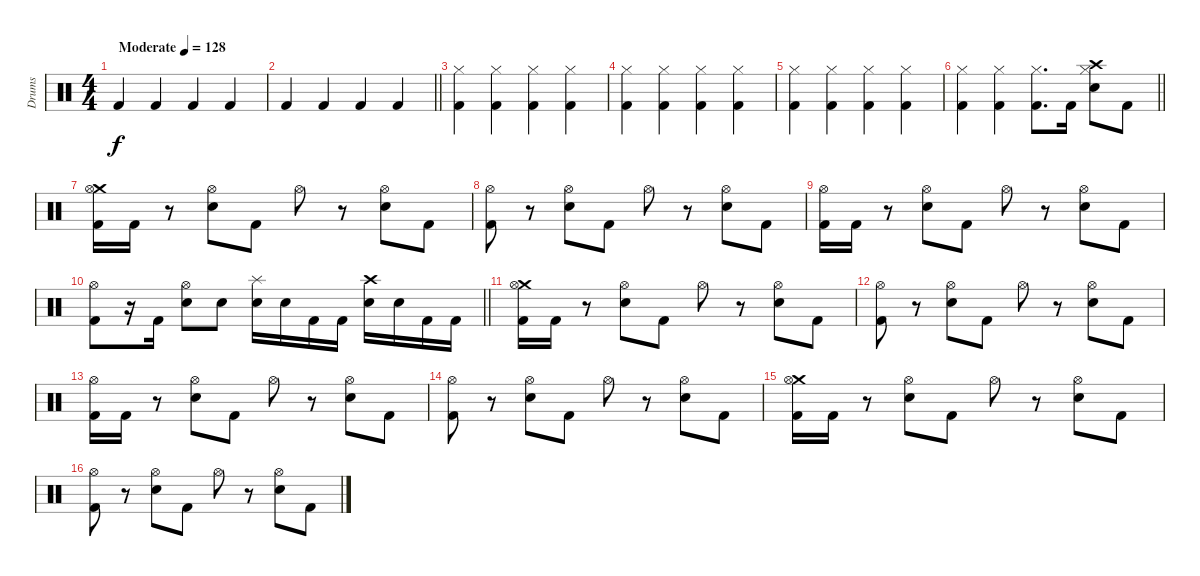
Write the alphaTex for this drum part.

\track ("Drums" "Drums") {instrument percussion}
\staff {score}
\articulation defaults
\ts (4 4)
\section ("" "")
\tempo (128 "Moderate")
\clef neutral
\ks c "Kick (hit) 2".4{dy f} "Kick (hit) 2".4 "Kick (hit) 2".4 "Kick (hit) 2".4
|
\barLineRight lightlight "Kick (hit) 2".4 "Kick (hit) 2".4 "Kick (hit) 2".4 "Kick (hit) 2".4
|
\section ("" "")
("Hi-Hat (closed)" "Kick (hit) 2").4 ("Hi-Hat (closed)" "Kick (hit) 2").4 ("Hi-Hat (closed)" "Kick (hit) 2").4 ("Hi-Hat (closed)" "Kick (hit) 2").4 |
("Hi-Hat (closed)" "Kick (hit) 2").4 ("Hi-Hat (closed)" "Kick (hit) 2").4 ("Hi-Hat (closed)" "Kick (hit) 2").4 ("Hi-Hat (closed)" "Kick (hit) 2").4 |
("Hi-Hat (closed)" "Kick (hit) 2").4 ("Hi-Hat (closed)" "Kick (hit) 2").4 ("Hi-Hat (closed)" "Kick (hit) 2").4 ("Hi-Hat (closed)" "Kick (hit) 2").4 |
\barLineRight lightlight
("Hi-Hat (closed)" "Kick (hit) 2").4 ("Hi-Hat (closed)" "Kick (hit) 2").4 ("Hi-Hat (closed)" "Kick (hit) 2").8{d} "Kick (hit) 2".16 ("Crash high (hit)" "Hi-Hat (closed)" "Electric Snare (hit)").8 "Kick (hit) 2".8 |
\section ("" "")
("Crash medium (hit)" "Hi-Hat (open)" "Kick (hit) 2").16 "Kick (hit) 2".16 r.8 ("Hi-Hat (open)" "Electric Snare (hit)").8 "Kick (hit) 2".8 "Hi-Hat (open)".8 r.8 ("Hi-Hat (open)" "Electric Snare (hit)").8 "Kick (hit) 2".8 |
("Hi-Hat (open)" "Kick (hit) 2").8 r.8 ("Hi-Hat (open)" "Electric Snare (hit)").8 "Kick (hit) 2".8 "Hi-Hat (open)".8 r.8 ("Hi-Hat (open)" "Electric Snare (hit)").8 "Kick (hit) 2".8 |
("Hi-Hat (open)" "Kick (hit) 2").16 "Kick (hit) 2".16 r.8 ("Hi-Hat (open)" "Electric Snare (hit)").8 "Kick (hit) 2".8 "Hi-Hat (open)".8 r.8 ("Hi-Hat (open)" "Electric Snare (hit)").8 "Kick (hit) 2".8 |
\barLineRight lightlight
("Hi-Hat (open)" "Kick (hit) 2").8 r.16 "Kick (hit) 2".16 ("Hi-Hat (open)" "Electric Snare (hit)").8 "Electric Snare (hit)".8 ("Splash (hit)" "Electric Snare (hit)").16 "Electric Snare (hit)".16 "Kick (hit) 2".16 "Kick (hit) 2".16 ("Crash high (hit)" "Electric Snare (hit)").16 "Electric Snare (hit)".16 "Kick (hit) 2".16 "Kick (hit) 2".16 |
\section ("" "")
("Crash medium (hit)" "Hi-Hat (open)" "Kick (hit) 2").16 "Kick (hit) 2".16 r.8 ("Hi-Hat (open)" "Electric Snare (hit)").8 "Kick (hit) 2".8 "Hi-Hat (open)".8 r.8 ("Hi-Hat (open)" "Electric Snare (hit)").8 "Kick (hit) 2".8 |
("Hi-Hat (open)" "Kick (hit) 2").8 r.8 ("Hi-Hat (open)" "Electric Snare (hit)").8 "Kick (hit) 2".8 "Hi-Hat (open)".8 r.8 ("Hi-Hat (open)" "Electric Snare (hit)").8 "Kick (hit) 2".8 |
("Hi-Hat (open)" "Kick (hit) 2").16 "Kick (hit) 2".16 r.8 ("Hi-Hat (open)" "Electric Snare (hit)").8 "Kick (hit) 2".8 "Hi-Hat (open)".8 r.8 ("Hi-Hat (open)" "Electric Snare (hit)").8 "Kick (hit) 2".8 |
("Hi-Hat (open)" "Kick (hit) 2").8 r.8 ("Hi-Hat (open)" "Electric Snare (hit)").8 "Kick (hit) 2".8 "Hi-Hat (open)".8 r.8 ("Hi-Hat (open)" "Electric Snare (hit)").8 "Kick (hit) 2".8 |
("Crash medium (hit)" "Hi-Hat (open)" "Kick (hit) 2").16 "Kick (hit) 2".16 r.8 ("Hi-Hat (open)" "Electric Snare (hit)").8 "Kick (hit) 2".8 "Hi-Hat (open)".8 r.8 ("Hi-Hat (open)" "Electric Snare (hit)").8 "Kick (hit) 2".8 |
("Hi-Hat (open)" "Kick (hit) 2").8 r.8 ("Hi-Hat (open)" "Electric Snare (hit)").8 "Kick (hit) 2".8 "Hi-Hat (open)".8 r.8 ("Hi-Hat (open)" "Electric Snare (hit)").8 "Kick (hit) 2".8
